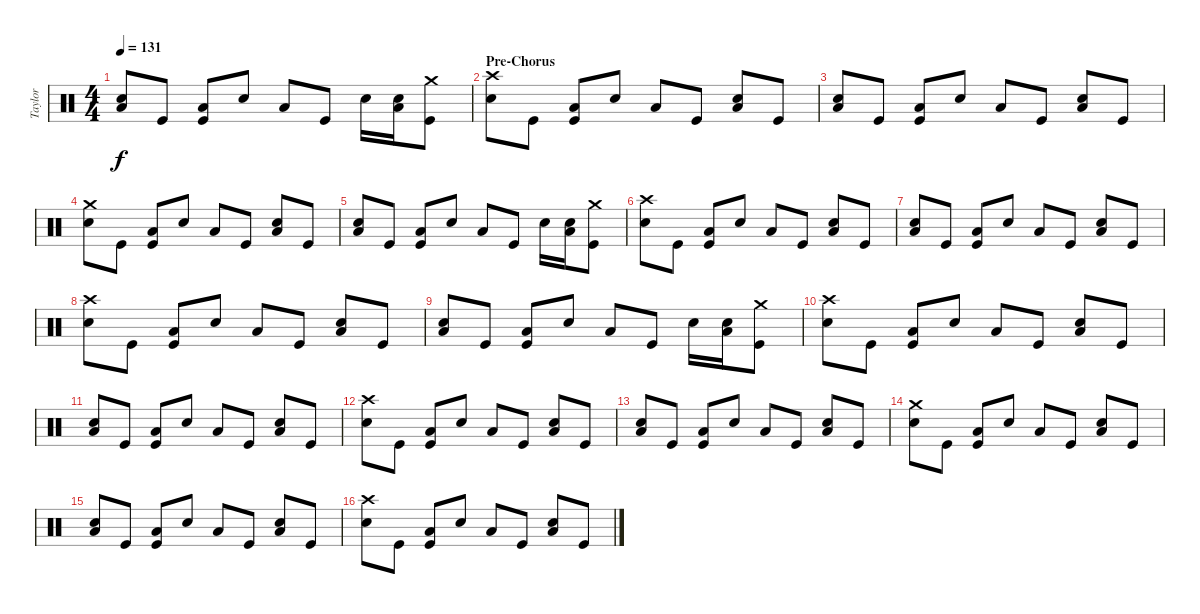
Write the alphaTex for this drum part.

\track ("Taylor" "Taylor") {instrument percussion}
\staff {score}
\articulation defaults
\ts (4 4)
\tempo 131
\clef neutral
\ks c
("Low Floor Tom (hit)" "Snare (hit) 2").8{dy f} "Kick (hit)".8 ("Low Floor Tom (hit)" "Kick (hit)").8 "Snare (hit) 2".8 "Low Floor Tom (hit)".8 "Kick (hit)".8 "Snare (hit) 2".16 ("Snare (hit) 2" "Low Floor Tom (hit)").16 ("Crash medium (hit)" "Kick (hit)").8 |
\section ("" "Pre-Chorus")
("Crash high (hit)" "Snare (hit) 2").8 "Kick (hit)".8 ("Low Floor Tom (hit)" "Kick (hit)").8 "Snare (hit) 2".8 "Low Floor Tom (hit)".8 "Kick (hit)".8 ("Snare (hit) 2" "Low Floor Tom (hit)").8 "Kick (hit)".8 |
("Low Floor Tom (hit)" "Snare (hit) 2").8 "Kick (hit)".8 ("Low Floor Tom (hit)" "Kick (hit)").8 "Snare (hit) 2".8 "Low Floor Tom (hit)".8 "Kick (hit)".8 ("Snare (hit) 2" "Low Floor Tom (hit)").8 "Kick (hit)".8 |
("Crash medium (hit)" "Snare (hit) 2").8 "Kick (hit)".8 ("Low Floor Tom (hit)" "Kick (hit)").8 "Snare (hit) 2".8 "Low Floor Tom (hit)".8 "Kick (hit)".8 ("Snare (hit) 2" "Low Floor Tom (hit)").8 "Kick (hit)".8 |
("Low Floor Tom (hit)" "Snare (hit) 2").8 "Kick (hit)".8 ("Low Floor Tom (hit)" "Kick (hit)").8 "Snare (hit) 2".8 "Low Floor Tom (hit)".8 "Kick (hit)".8 "Snare (hit) 2".16 ("Snare (hit) 2" "Low Floor Tom (hit)").16 ("Crash medium (hit)" "Kick (hit)").8 |
("Crash high (hit)" "Snare (hit) 2").8 "Kick (hit)".8 ("Low Floor Tom (hit)" "Kick (hit)").8 "Snare (hit) 2".8 "Low Floor Tom (hit)".8 "Kick (hit)".8 ("Snare (hit) 2" "Low Floor Tom (hit)").8 "Kick (hit)".8 |
("Low Floor Tom (hit)" "Snare (hit) 2").8 "Kick (hit)".8 ("Low Floor Tom (hit)" "Kick (hit)").8 "Snare (hit) 2".8 "Low Floor Tom (hit)".8 "Kick (hit)".8 ("Snare (hit) 2" "Low Floor Tom (hit)").8 "Kick (hit)".8 |
("Crash high (hit)" "Snare (hit) 2").8 "Kick (hit)".8 ("Low Floor Tom (hit)" "Kick (hit)").8 "Snare (hit) 2".8 "Low Floor Tom (hit)".8 "Kick (hit)".8 ("Snare (hit) 2" "Low Floor Tom (hit)").8 "Kick (hit)".8 |
("Low Floor Tom (hit)" "Snare (hit) 2").8 "Kick (hit)".8 ("Low Floor Tom (hit)" "Kick (hit)").8 "Snare (hit) 2".8 "Low Floor Tom (hit)".8 "Kick (hit)".8 "Snare (hit) 2".16 ("Snare (hit) 2" "Low Floor Tom (hit)").16 ("Crash medium (hit)" "Kick (hit)").8 |
("Crash high (hit)" "Snare (hit) 2").8 "Kick (hit)".8 ("Low Floor Tom (hit)" "Kick (hit)").8 "Snare (hit) 2".8 "Low Floor Tom (hit)".8 "Kick (hit)".8 ("Snare (hit) 2" "Low Floor Tom (hit)").8 "Kick (hit)".8 |
("Low Floor Tom (hit)" "Snare (hit) 2").8 "Kick (hit)".8 ("Low Floor Tom (hit)" "Kick (hit)").8 "Snare (hit) 2".8 "Low Floor Tom (hit)".8 "Kick (hit)".8 ("Snare (hit) 2" "Low Floor Tom (hit)").8 "Kick (hit)".8 |
("Crash high (hit)" "Snare (hit) 2").8 "Kick (hit)".8 ("Low Floor Tom (hit)" "Kick (hit)").8 "Snare (hit) 2".8 "Low Floor Tom (hit)".8 "Kick (hit)".8 ("Snare (hit) 2" "Low Floor Tom (hit)").8 "Kick (hit)".8 |
("Low Floor Tom (hit)" "Snare (hit) 2").8 "Kick (hit)".8 ("Low Floor Tom (hit)" "Kick (hit)").8 "Snare (hit) 2".8 "Low Floor Tom (hit)".8 "Kick (hit)".8 ("Snare (hit) 2" "Low Floor Tom (hit)").8 "Kick (hit)".8 |
("Crash medium (hit)" "Snare (hit) 2").8 "Kick (hit)".8 ("Low Floor Tom (hit)" "Kick (hit)").8 "Snare (hit) 2".8 "Low Floor Tom (hit)".8 "Kick (hit)".8 ("Snare (hit) 2" "Low Floor Tom (hit)").8 "Kick (hit)".8 |
("Low Floor Tom (hit)" "Snare (hit) 2").8 "Kick (hit)".8 ("Low Floor Tom (hit)" "Kick (hit)").8 "Snare (hit) 2".8 "Low Floor Tom (hit)".8 "Kick (hit)".8 ("Snare (hit) 2" "Low Floor Tom (hit)").8 "Kick (hit)".8 |
("Crash high (hit)" "Snare (hit) 2").8 "Kick (hit)".8 ("Low Floor Tom (hit)" "Kick (hit)").8 "Snare (hit) 2".8 "Low Floor Tom (hit)".8 "Kick (hit)".8 ("Snare (hit) 2" "Low Floor Tom (hit)").8 "Kick (hit)".8
